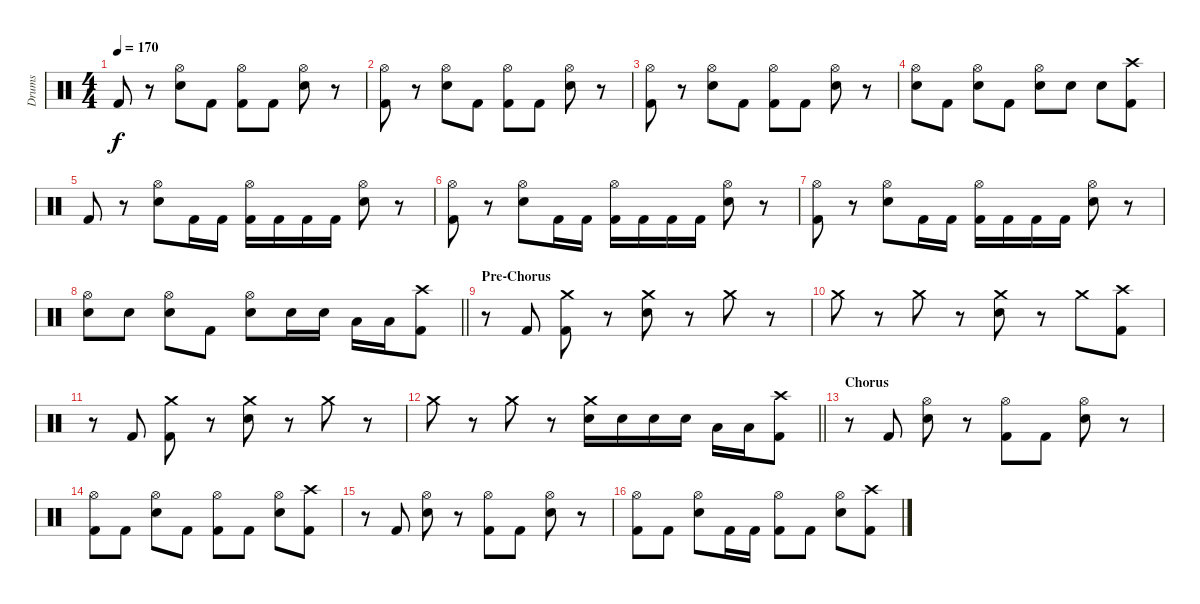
\track ("Drums" "Drums") {instrument percussion}
\staff {score}
\articulation defaults
\ts (4 4)
\tempo 170
\clef neutral
\ks c "Kick (hit) 2".8{dy f}
r.8 ("Hi-Hat (open)" "Snare (hit) 2").8 "Kick (hit) 2".8 ("Hi-Hat (open)" "Kick (hit) 2").8 "Kick (hit) 2".8 ("Hi-Hat (open)" "Snare (hit) 2").8 r.8 |
("Hi-Hat (open)" "Kick (hit) 2").8 r.8 ("Hi-Hat (open)" "Snare (hit) 2").8 "Kick (hit) 2".8 ("Hi-Hat (open)" "Kick (hit) 2").8 "Kick (hit) 2".8 ("Hi-Hat (open)" "Snare (hit) 2").8 r.8 |
("Hi-Hat (open)" "Kick (hit) 2").8 r.8 ("Hi-Hat (open)" "Snare (hit) 2").8 "Kick (hit) 2".8 ("Hi-Hat (open)" "Kick (hit) 2").8 "Kick (hit) 2".8 ("Hi-Hat (open)" "Snare (hit) 2").8 r.8 |
("Hi-Hat (open)" "Snare (hit) 2").8 "Kick (hit) 2".8 ("Hi-Hat (open)" "Snare (hit) 2").8 "Kick (hit) 2".8 ("Hi-Hat (open)" "Snare (hit) 2").8 "Snare (hit) 2".8 "Snare (hit) 2".8 ("Crash high (hit)" "Kick (hit) 2").8 |
"Kick (hit) 2".8 r.8 ("Hi-Hat (open)" "Snare (hit) 2").8 "Kick (hit) 2".16 "Kick (hit) 2".16 ("Hi-Hat (open)" "Kick (hit) 2").16 "Kick (hit) 2".16 "Kick (hit) 2".16 "Kick (hit) 2".16 ("Hi-Hat (open)" "Snare (hit) 2").8 r.8 |
("Hi-Hat (open)" "Kick (hit) 2").8 r.8 ("Hi-Hat (open)" "Snare (hit) 2").8 "Kick (hit) 2".16 "Kick (hit) 2".16 ("Hi-Hat (open)" "Kick (hit) 2").16 "Kick (hit) 2".16 "Kick (hit) 2".16 "Kick (hit) 2".16 ("Hi-Hat (open)" "Snare (hit) 2").8 r.8 |
("Hi-Hat (open)" "Kick (hit) 2").8 r.8 ("Hi-Hat (open)" "Snare (hit) 2").8 "Kick (hit) 2".16 "Kick (hit) 2".16 ("Hi-Hat (open)" "Kick (hit) 2").16 "Kick (hit) 2".16 "Kick (hit) 2".16 "Kick (hit) 2".16 ("Hi-Hat (open)" "Snare (hit) 2").8 r.8 |
\barLineRight lightlight
("Hi-Hat (open)" "Snare (hit) 2").8 "Snare (hit) 2".8 ("Hi-Hat (open)" "Snare (hit) 2").8 "Kick (hit) 2".8 ("Hi-Hat (open)" "Snare (hit) 2").8 "Snare (hit) 2".16 "Snare (hit) 2".16 "Low Tom (hit)".16 "Low Tom (hit)".16 ("Crash high (hit)" "Kick (hit) 2").8 |
\section ("" "Pre-Chorus")
r.8 "Kick (hit) 2".8 ("Crash medium (hit)" "Kick (hit) 2").8 r.8 ("Crash medium (hit)" "Snare (hit) 2").8 r.8 "Crash medium (hit)".8 r.8 |
"Crash medium (hit)".8 r.8 "Crash medium (hit)".8 r.8 ("Crash medium (hit)" "Snare (hit) 2").8 r.8 "Crash medium (hit)".8 ("Crash high (hit)" "Kick (hit) 2").8 |
r.8 "Kick (hit) 2".8 ("Crash medium (hit)" "Kick (hit) 2").8 r.8 ("Crash medium (hit)" "Snare (hit) 2").8 r.8 "Crash medium (hit)".8 r.8 |
\barLineRight lightlight "Crash medium (hit)".8
r.8 "Crash medium (hit)".8 r.8 ("Crash medium (hit)" "Snare (hit) 2").16 "Snare (hit) 2".16 "Snare (hit) 2".16 "Snare (hit) 2".16 "Low Tom (hit)".16 "Low Tom (hit)".16 ("Crash high (hit)" "Kick (hit) 2").8 |
\section ("" "Chorus")
r.8 "Kick (hit) 2".8 ("Hi-Hat (open)" "Snare (hit) 2").8 r.8 ("Hi-Hat (open)" "Kick (hit) 2").8 "Kick (hit) 2".8 ("Hi-Hat (open)" "Snare (hit) 2").8 r.8 |
("Hi-Hat (open)" "Kick (hit) 2").8 "Kick (hit) 2".8 ("Hi-Hat (open)" "Snare (hit) 2").8 "Kick (hit) 2".8 ("Hi-Hat (open)" "Kick (hit) 2").8 "Kick (hit) 2".8 ("Hi-Hat (open)" "Snare (hit) 2").8 ("Crash high (hit)" "Kick (hit) 2").8 |
r.8 "Kick (hit) 2".8 ("Hi-Hat (open)" "Snare (hit) 2").8 r.8 ("Hi-Hat (open)" "Kick (hit) 2").8 "Kick (hit) 2".8 ("Hi-Hat (open)" "Snare (hit) 2").8 r.8 |
("Hi-Hat (open)" "Kick (hit) 2").8 "Kick (hit) 2".8 ("Hi-Hat (open)" "Snare (hit) 2").8 "Kick (hit) 2".16 "Kick (hit) 2".16 ("Hi-Hat (open)" "Kick (hit) 2").8 "Kick (hit) 2".8 ("Hi-Hat (open)" "Snare (hit) 2").8 ("Crash high (hit)" "Kick (hit) 2").8
